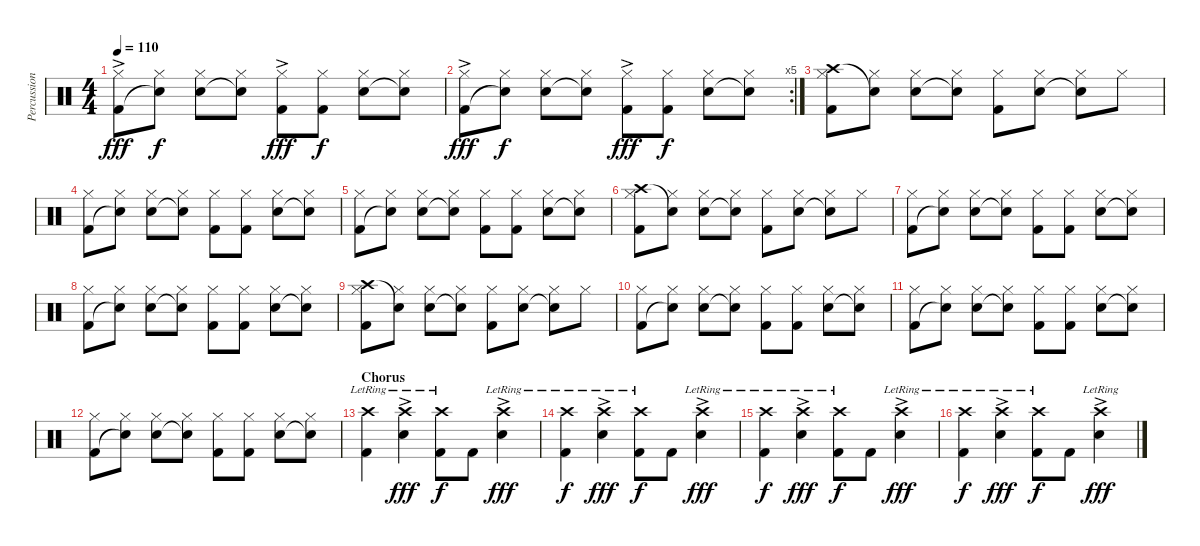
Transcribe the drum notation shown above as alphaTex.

\track ("Percussion" "Percussion") {instrument percussion}
\staff {score}
\articulation defaults
\ts (4 4)
\tempo 110
\clef neutral
\ks c
("Hi-Hat (closed)" "Kick (hit) 2"{ac}).8{dy fff} ("Hi-Hat (closed)" "Snare (hit)"{t}).8{dy f} ("Hi-Hat (closed)" "Snare (hit) 2").8 ("Hi-Hat (closed)" "Snare (hit)"{t}).8 ("Hi-Hat (closed)" "Kick (hit) 2"{ac}).8{dy fff} ("Hi-Hat (closed)" "Kick (hit) 2").8{dy f} ("Hi-Hat (closed)" "Snare (hit) 2").8 ("Hi-Hat (closed)" "Snare (hit)"{t}).8 |
\rc 5
("Hi-Hat (closed)" "Kick (hit) 2"{ac}).8{dy fff} ("Hi-Hat (closed)" "Snare (hit)"{t}).8{dy f} ("Hi-Hat (closed)" "Snare (hit) 2").8 ("Hi-Hat (closed)" "Snare (hit)"{t}).8 ("Hi-Hat (closed)" "Kick (hit) 2"{ac}).8{dy fff} ("Hi-Hat (closed)" "Kick (hit) 2").8{dy f} ("Hi-Hat (closed)" "Snare (hit) 2").8 ("Hi-Hat (closed)" "Snare (hit)"{t}).8 |
("Hi-Hat (closed)" "Crash high (hit)" "Kick (hit) 2").8 ("Hi-Hat (closed)" "Snare (hit)"{t}).8 ("Hi-Hat (closed)" "Snare (hit) 2").8 ("Hi-Hat (closed)" "Snare (hit)"{t}).8 ("Hi-Hat (closed)" "Kick (hit) 2").8 ("Hi-Hat (closed)" "Snare (hit) 2").8 ("Hi-Hat (closed)" "Snare (hit)"{t}).8 "Hi-Hat (closed)".8 |
("Hi-Hat (closed)" "Kick (hit) 2").8 ("Hi-Hat (closed)" "Snare (hit)"{t}).8 ("Hi-Hat (closed)" "Snare (hit) 2").8 ("Hi-Hat (closed)" "Snare (hit)"{t}).8 ("Hi-Hat (closed)" "Kick (hit) 2").8 ("Hi-Hat (closed)" "Kick (hit) 2").8 ("Hi-Hat (closed)" "Snare (hit) 2").8 ("Hi-Hat (closed)" "Snare (hit)"{t}).8 |
("Hi-Hat (closed)" "Kick (hit) 2").8 ("Hi-Hat (closed)" "Snare (hit)"{t}).8 ("Hi-Hat (closed)" "Snare (hit) 2").8 ("Hi-Hat (closed)" "Snare (hit)"{t}).8 ("Hi-Hat (closed)" "Kick (hit) 2").8 ("Hi-Hat (closed)" "Kick (hit) 2").8 ("Hi-Hat (closed)" "Snare (hit) 2").8 ("Hi-Hat (closed)" "Snare (hit)"{t}).8 |
("Hi-Hat (closed)" "Crash high (hit)" "Kick (hit) 2").8 ("Hi-Hat (closed)" "Snare (hit)"{t}).8 ("Hi-Hat (closed)" "Snare (hit) 2").8 ("Hi-Hat (closed)" "Snare (hit)"{t}).8 ("Hi-Hat (closed)" "Kick (hit) 2").8 ("Hi-Hat (closed)" "Snare (hit) 2").8 ("Hi-Hat (closed)" "Snare (hit)"{t}).8 "Hi-Hat (closed)".8 |
("Hi-Hat (closed)" "Kick (hit) 2").8 ("Hi-Hat (closed)" "Snare (hit)"{t}).8 ("Hi-Hat (closed)" "Snare (hit) 2").8 ("Hi-Hat (closed)" "Snare (hit)"{t}).8 ("Hi-Hat (closed)" "Kick (hit) 2").8 ("Hi-Hat (closed)" "Kick (hit) 2").8 ("Hi-Hat (closed)" "Snare (hit) 2").8 ("Hi-Hat (closed)" "Snare (hit)"{t}).8 |
("Hi-Hat (closed)" "Kick (hit) 2").8 ("Hi-Hat (closed)" "Snare (hit)"{t}).8 ("Hi-Hat (closed)" "Snare (hit) 2").8 ("Hi-Hat (closed)" "Snare (hit)"{t}).8 ("Hi-Hat (closed)" "Kick (hit) 2").8 ("Hi-Hat (closed)" "Kick (hit) 2").8 ("Hi-Hat (closed)" "Snare (hit) 2").8 ("Hi-Hat (closed)" "Snare (hit)"{t}).8 |
("Hi-Hat (closed)" "Crash high (hit)" "Kick (hit) 2").8 ("Hi-Hat (closed)" "Snare (hit)"{t}).8 ("Hi-Hat (closed)" "Snare (hit) 2").8 ("Hi-Hat (closed)" "Snare (hit)"{t}).8 ("Hi-Hat (closed)" "Kick (hit) 2").8 ("Hi-Hat (closed)" "Snare (hit) 2").8 ("Hi-Hat (closed)" "Snare (hit)"{t}).8 "Hi-Hat (closed)".8 |
("Hi-Hat (closed)" "Kick (hit) 2").8 ("Hi-Hat (closed)" "Snare (hit)"{t}).8 ("Hi-Hat (closed)" "Snare (hit) 2").8 ("Hi-Hat (closed)" "Snare (hit)"{t}).8 ("Hi-Hat (closed)" "Kick (hit) 2").8 ("Hi-Hat (closed)" "Kick (hit) 2").8 ("Hi-Hat (closed)" "Snare (hit) 2").8 ("Hi-Hat (closed)" "Snare (hit)"{t}).8 |
("Hi-Hat (closed)" "Kick (hit) 2").8 ("Hi-Hat (closed)" "Snare (hit)"{t}).8 ("Hi-Hat (closed)" "Snare (hit) 2").8 ("Hi-Hat (closed)" "Snare (hit)"{t}).8 ("Hi-Hat (closed)" "Kick (hit) 2").8 ("Hi-Hat (closed)" "Kick (hit) 2").8 ("Hi-Hat (closed)" "Snare (hit) 2").8 ("Hi-Hat (closed)" "Snare (hit)"{t}).8 |
("Hi-Hat (closed)" "Kick (hit) 2").8 ("Hi-Hat (closed)" "Snare (hit)"{t}).8 ("Hi-Hat (closed)" "Snare (hit) 2").8 ("Hi-Hat (closed)" "Snare (hit)"{t}).8 ("Hi-Hat (closed)" "Kick (hit) 2").8 ("Hi-Hat (closed)" "Kick (hit) 2").8 ("Hi-Hat (closed)" "Snare (hit) 2").8 ("Hi-Hat (closed)" "Snare (hit)"{t}).8 |
\section ("" "Chorus")
("Crash high (hit)"{lr} "Kick (hit) 2").4 ("Crash high (hit)"{ac lr} "Snare (hit) 2").4{dy fff} ("Crash high (hit)"{lr} "Kick (hit) 2").8{dy f} "Kick (hit) 2".8 ("Crash high (hit)"{lr} "Snare (hit) 2"{ac}).4{dy fff} |
("Crash high (hit)"{lr} "Kick (hit) 2").4{dy f} ("Crash high (hit)"{lr} "Snare (hit) 2"{ac}).4{dy fff} ("Crash high (hit)"{lr} "Kick (hit) 2").8{dy f} "Kick (hit) 2".8 ("Crash high (hit)"{lr} "Snare (hit) 2"{ac}).4{dy fff} |
("Crash high (hit)"{lr} "Kick (hit) 2").4{dy f} ("Crash high (hit)"{lr} "Snare (hit) 2"{ac}).4{dy fff} ("Crash high (hit)"{lr} "Kick (hit) 2").8{dy f} "Kick (hit) 2".8 ("Crash high (hit)"{lr} "Snare (hit) 2"{ac}).4{dy fff} |
("Crash high (hit)"{lr} "Kick (hit) 2").4{dy f} ("Crash high (hit)"{lr} "Snare (hit) 2"{ac}).4{dy fff} ("Crash high (hit)"{lr} "Kick (hit) 2").8{dy f} "Kick (hit) 2".8 ("Crash high (hit)"{lr} "Snare (hit) 2"{ac}).4{dy fff}
